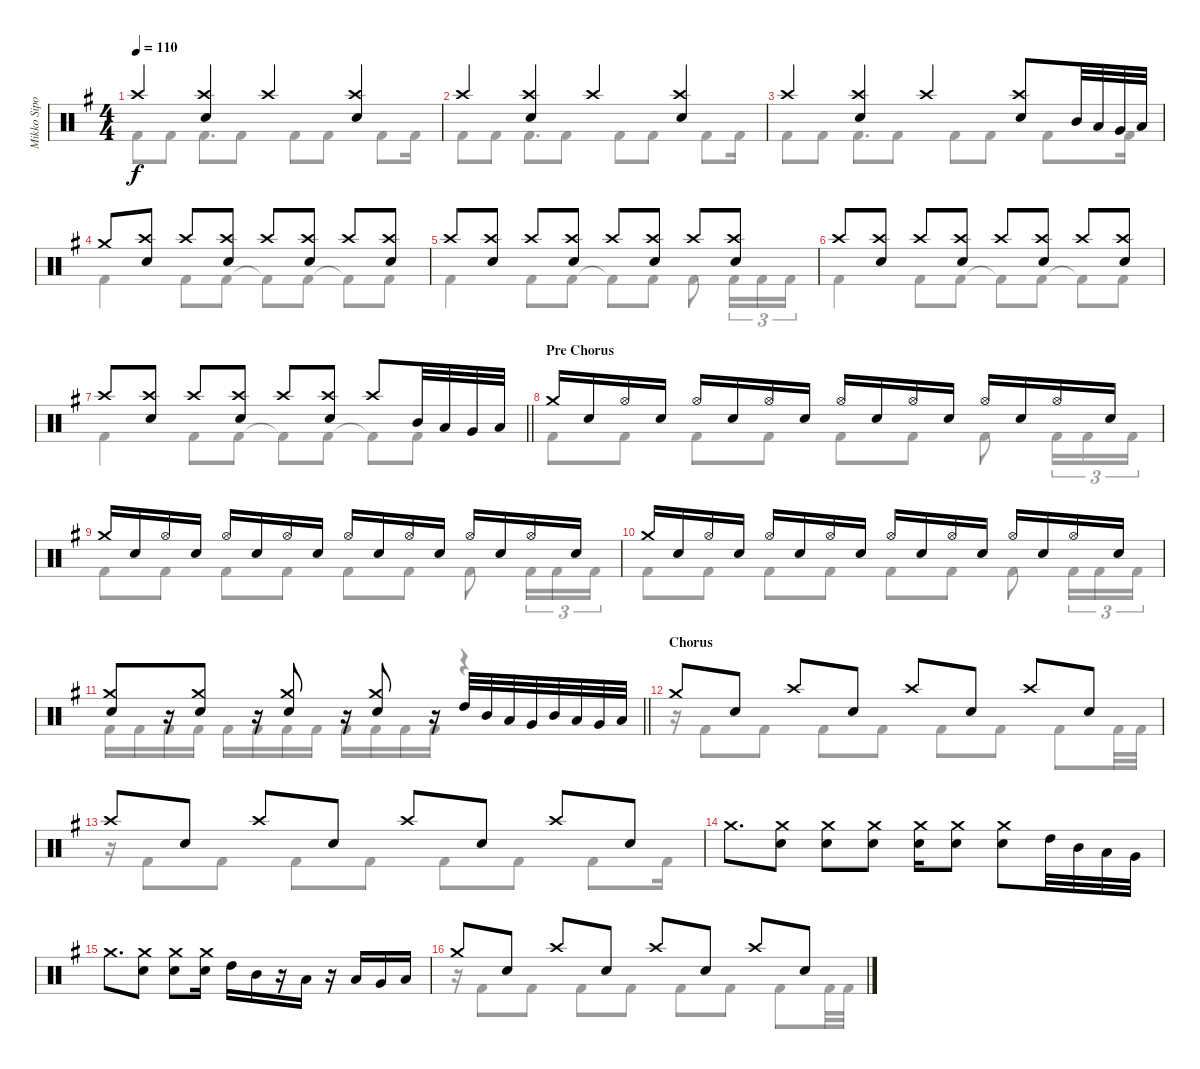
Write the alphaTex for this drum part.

\track ("Mikko Sipola (drums)" "Mikko Sipo") {instrument percussion}
\staff {score}
\articulation defaults
\voice
\ts (4 4)
\tempo 110
\clef neutral
\ks eminor "Crash high (hit)".4{dy f}
("Crash high (hit)" "Electric Snare (hit)").4 "Crash high (hit)".4 ("Crash high (hit)" "Electric Snare (hit)").4 |
"Crash high (hit)".4 ("Crash high (hit)" "Electric Snare (hit)").4 "Crash high (hit)".4 ("Crash high (hit)" "Electric Snare (hit)").4 |
"Crash high (hit)".4 ("Crash high (hit)" "Electric Snare (hit)").4 "Crash high (hit)".4 ("Crash high (hit)" "Electric Snare (hit)").8 "Mid Tom (hit)".32 "Low Tom (hit)".32 "Very Low Tom (hit)".32 "Low Floor Tom (hit)".32 |
"Crash medium (hit)".8 ("Crash high (hit)" "Electric Snare (hit)").8 "Crash high (hit)".8 ("Crash high (hit)" "Electric Snare (hit)").8 "Crash high (hit)".8 ("Crash high (hit)" "Electric Snare (hit)").8 "Crash high (hit)".8 ("Crash high (hit)" "Electric Snare (hit)").8 |
"Crash high (hit)".8 ("Crash high (hit)" "Electric Snare (hit)").8 "Crash high (hit)".8 ("Crash high (hit)" "Electric Snare (hit)").8 "Crash high (hit)".8 ("Crash high (hit)" "Electric Snare (hit)").8 "Crash high (hit)".8 ("Crash high (hit)" "Electric Snare (hit)").8 |
"Crash high (hit)".8 ("Crash high (hit)" "Electric Snare (hit)").8 "Crash high (hit)".8 ("Crash high (hit)" "Electric Snare (hit)").8 "Crash high (hit)".8 ("Crash high (hit)" "Electric Snare (hit)").8 "Crash high (hit)".8 ("Crash high (hit)" "Electric Snare (hit)").8 |
\barLineRight lightlight "Crash high (hit)".8
("Crash high (hit)" "Electric Snare (hit)").8 "Crash high (hit)".8 ("Crash high (hit)" "Electric Snare (hit)").8 "Crash high (hit)".8 ("Crash high (hit)" "Electric Snare (hit)").8 "Crash high (hit)".8 "Mid Tom (hit)".32 "Low Tom (hit)".32 "Very Low Tom (hit)".32 "Low Floor Tom (hit)".32 |
\section ("" "Pre Chorus")
"Crash medium (hit)".16 "Electric Snare (hit)".16 "Hi-Hat (open)".16 "Electric Snare (hit)".16 "Hi-Hat (open)".16 "Electric Snare (hit)".16 "Hi-Hat (open)".16 "Electric Snare (hit)".16 "Hi-Hat (open)".16 "Electric Snare (hit)".16 "Hi-Hat (open)".16 "Electric Snare (hit)".16 "Hi-Hat (open)".16 "Electric Snare (hit)".16 "Hi-Hat (open)".16 "Electric Snare (hit)".16 |
"Crash medium (hit)".16 "Electric Snare (hit)".16 "Hi-Hat (open)".16 "Electric Snare (hit)".16 "Hi-Hat (open)".16 "Electric Snare (hit)".16 "Hi-Hat (open)".16 "Electric Snare (hit)".16 "Hi-Hat (open)".16 "Electric Snare (hit)".16 "Hi-Hat (open)".16 "Electric Snare (hit)".16 "Hi-Hat (open)".16 "Electric Snare (hit)".16 "Hi-Hat (open)".16 "Electric Snare (hit)".16 |
"Crash medium (hit)".16 "Electric Snare (hit)".16 "Hi-Hat (open)".16 "Electric Snare (hit)".16 "Hi-Hat (open)".16 "Electric Snare (hit)".16 "Hi-Hat (open)".16 "Electric Snare (hit)".16 "Hi-Hat (open)".16 "Electric Snare (hit)".16 "Hi-Hat (open)".16 "Electric Snare (hit)".16 "Hi-Hat (open)".16 "Electric Snare (hit)".16 "Hi-Hat (open)".16 "Electric Snare (hit)".16 |
\barLineRight lightlight
("Crash medium (hit)" "Electric Snare (hit)").8 r.16 ("Crash medium (hit)" "Electric Snare (hit)").8 r.16 ("Crash medium (hit)" "Electric Snare (hit)").8 r.16 ("Crash medium (hit)" "Electric Snare (hit)").8 r.16 "High Tom (hit)".32 "Mid Tom (hit)".32 "Low Tom (hit)".32 "Very Low Tom (hit)".32 "Mid Tom (hit)".32 "Low Tom (hit)".32 "Very Low Tom (hit)".32 "Low Floor Tom (hit)".32 |
\section ("" "Chorus")
"Crash medium (hit)".8 "Electric Snare (hit)".8 "Crash high (hit)".8 "Electric Snare (hit)".8 "Crash high (hit)".8 "Electric Snare (hit)".8 "Crash high (hit)".8 "Electric Snare (hit)".8 |
"Crash high (hit)".8 "Electric Snare (hit)".8 "Crash high (hit)".8 "Electric Snare (hit)".8 "Crash high (hit)".8 "Electric Snare (hit)".8 "Crash high (hit)".8 "Electric Snare (hit)".8 |
"Crash medium (hit)".8{d} ("Crash medium (hit)" "Electric Snare (hit)").8 ("Crash medium (hit)" "Electric Snare (hit)").8 ("Crash medium (hit)" "Electric Snare (hit)").8 ("Crash medium (hit)" "Electric Snare (hit)").16 ("Crash medium (hit)" "Electric Snare (hit)").8 ("Crash medium (hit)" "Electric Snare (hit)").8 "High Tom (hit)".32 "Mid Tom (hit)".32 "Low Tom (hit)".32 "Very Low Tom (hit)".32 |
"Crash medium (hit)".8{d} ("Crash medium (hit)" "Electric Snare (hit)").8 ("Crash medium (hit)" "Electric Snare (hit)").8 ("Crash medium (hit)" "Electric Snare (hit)").16 "High Tom (hit)".16 "Mid Tom (hit)".16 r.16 "Low Tom (hit)".16 r.16 "Low Tom (hit)".16 "Very Low Tom (hit)".16 "Low Floor Tom (hit)".16 |
"Crash medium (hit)".8 "Electric Snare (hit)".8 "Crash high (hit)".8 "Electric Snare (hit)".8 "Crash high (hit)".8 "Electric Snare (hit)".8 "Crash high (hit)".8 "Electric Snare (hit)".8
\voice
\clef neutral
\ottava regular
\simile none
\ks eminor "Kick (hit) 2".8{dy f} "Kick (hit) 2".8 "Kick (hit) 2".8{d} "Kick (hit) 2".8 "Kick (hit) 2".8 "Kick (hit) 2".8 "Kick (hit) 2".8 "Kick (hit) 2".16
|
"Kick (hit) 2".8 "Kick (hit) 2".8 "Kick (hit) 2".8{d} "Kick (hit) 2".8 "Kick (hit) 2".8 "Kick (hit) 2".8 "Kick (hit) 2".8 "Kick (hit) 2".16 |
"Kick (hit) 2".8 "Kick (hit) 2".8 "Kick (hit) 2".8{d} "Kick (hit) 2".8 "Kick (hit) 2".8 "Kick (hit) 2".8 "Kick (hit) 2".8 "Kick (hit) 2".16 |
"Kick (hit) 2".4 "Kick (hit) 2".8 "Kick (hit) 2".8 "Kick (hit) 2"{t}.8 "Kick (hit) 2".8 "Kick (hit) 2"{t}.8 "Kick (hit) 2".8 |
"Kick (hit) 2".4 "Kick (hit) 2".8 "Kick (hit) 2".8 "Kick (hit) 2"{t}.8 "Kick (hit) 2".8 "Kick (hit) 2".8 "Kick (hit) 2".16{tu (3 2)} "Kick (hit) 2".16{tu (3 2)} "Kick (hit) 2".16{tu (3 2)} |
"Kick (hit) 2".4 "Kick (hit) 2".8 "Kick (hit) 2".8 "Kick (hit) 2"{t}.8 "Kick (hit) 2".8 "Kick (hit) 2"{t}.8 "Kick (hit) 2".8 |
\barLineRight lightlight "Kick (hit) 2".4 "Kick (hit) 2".8 "Kick (hit) 2".8 "Kick (hit) 2"{t}.8 "Kick (hit) 2".8 "Kick (hit) 2"{t}.8 "Kick (hit) 2".8
|
"Kick (hit) 2".8 "Kick (hit) 2".8 "Kick (hit) 2".8 "Kick (hit) 2".8 "Kick (hit) 2".8 "Kick (hit) 2".8 "Kick (hit) 2".8 "Kick (hit) 2".16{tu (3 2)} "Kick (hit) 2".16{tu (3 2)} "Kick (hit) 2".16{tu (3 2)} |
"Kick (hit) 2".8 "Kick (hit) 2".8 "Kick (hit) 2".8 "Kick (hit) 2".8 "Kick (hit) 2".8 "Kick (hit) 2".8 "Kick (hit) 2".8 "Kick (hit) 2".16{tu (3 2)} "Kick (hit) 2".16{tu (3 2)} "Kick (hit) 2".16{tu (3 2)} |
"Kick (hit) 2".8 "Kick (hit) 2".8 "Kick (hit) 2".8 "Kick (hit) 2".8 "Kick (hit) 2".8 "Kick (hit) 2".8 "Kick (hit) 2".8 "Kick (hit) 2".16{tu (3 2)} "Kick (hit) 2".16{tu (3 2)} "Kick (hit) 2".16{tu (3 2)} |
\barLineRight lightlight "Kick (hit) 2".16 "Kick (hit) 2".16 "Kick (hit) 2".16 "Kick (hit) 2".16 "Kick (hit) 2".16 "Kick (hit) 2".16 "Kick (hit) 2".16 "Kick (hit) 2".16 "Kick (hit) 2".16 "Kick (hit) 2".16 "Kick (hit) 2".16 "Kick (hit) 2".16
r.4 |
r.16 "Kick (hit) 2".8 "Kick (hit) 2".8 "Kick (hit) 2".8 "Kick (hit) 2".8 "Kick (hit) 2".8 "Kick (hit) 2".8 "Kick (hit) 2".8 "Kick (hit) 2".32 "Kick (hit) 2".32 |
r.16 "Kick (hit) 2".8 "Kick (hit) 2".8 "Kick (hit) 2".8 "Kick (hit) 2".8 "Kick (hit) 2".8 "Kick (hit) 2".8 "Kick (hit) 2".8 "Kick (hit) 2".16 |
|
|
r.16 "Kick (hit) 2".8 "Kick (hit) 2".8 "Kick (hit) 2".8 "Kick (hit) 2".8 "Kick (hit) 2".8 "Kick (hit) 2".8 "Kick (hit) 2".8 "Kick (hit) 2".32 "Kick (hit) 2".32
